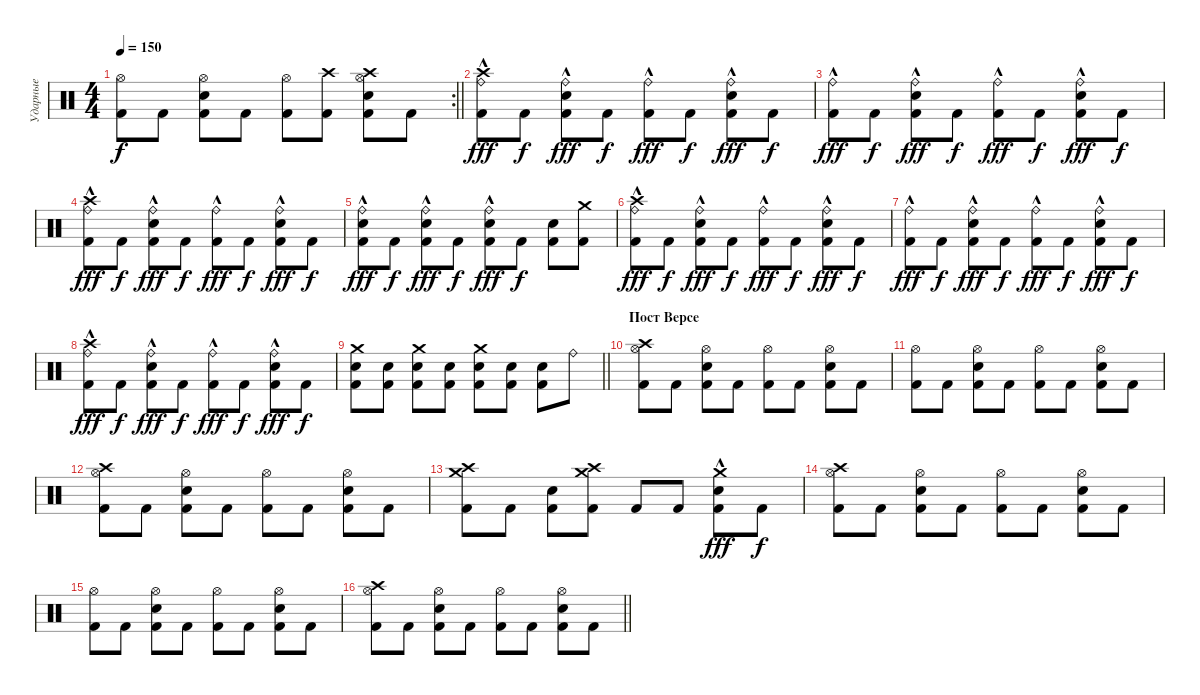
\track ("Ударные" "Ударные") {instrument percussion}
\staff {score}
\articulation defaults
\rc 2
\ts (4 4)
\tempo 150
\clef neutral
\barLineRight lightlight
\ks c
("Hi-Hat (open)" "Kick (hit) 2").8{dy f} "Kick (hit) 2".8 ("Hi-Hat (open)" "Snare (hit) 2" "Kick (hit) 2").8 "Kick (hit) 2".8 ("Hi-Hat (open)" "Kick (hit) 2").8 ("Crash high (hit)" "Kick (hit) 2").8 ("Crash high (hit)" "Hi-Hat (open)" "Snare (hit) 2" "Kick (hit) 2").8 "Kick (hit) 2".8 |
("Crash high (hit)" "Ride (bell)"{hac} "Kick (hit) 2").8{dy fff} "Kick (hit) 2".8{dy f} ("Ride (bell)"{hac} "Snare (hit) 2" "Kick (hit) 2").8{dy fff} "Kick (hit) 2".8{dy f} ("Ride (bell)"{hac} "Kick (hit) 2").8{dy fff} "Kick (hit) 2".8{dy f} ("Ride (bell)"{hac} "Snare (hit) 2" "Kick (hit) 2").8{dy fff} "Kick (hit) 2".8{dy f} |
("Ride (bell)"{hac} "Kick (hit) 2").8{dy fff} "Kick (hit) 2".8{dy f} ("Ride (bell)"{hac} "Snare (hit) 2" "Kick (hit) 2").8{dy fff} "Kick (hit) 2".8{dy f} ("Ride (bell)"{hac} "Kick (hit) 2").8{dy fff} "Kick (hit) 2".8{dy f} ("Ride (bell)"{hac} "Snare (hit) 2" "Kick (hit) 2").8{dy fff} "Kick (hit) 2".8{dy f} |
("Crash high (hit)" "Ride (bell)"{hac} "Kick (hit) 2").8{dy fff} "Kick (hit) 2".8{dy f} ("Ride (bell)"{hac} "Snare (hit) 2" "Kick (hit) 2").8{dy fff} "Kick (hit) 2".8{dy f} ("Ride (bell)"{hac} "Kick (hit) 2").8{dy fff} "Kick (hit) 2".8{dy f} ("Ride (bell)"{hac} "Snare (hit) 2" "Kick (hit) 2").8{dy fff} "Kick (hit) 2".8{dy f} |
("Ride (bell)"{hac} "Snare (hit) 2" "Kick (hit) 2").8{dy fff} "Kick (hit) 2".8{dy f} ("Ride (bell)"{hac} "Snare (hit) 2" "Kick (hit) 2").8{dy fff} "Kick (hit) 2".8{dy f} ("Ride (bell)"{hac} "Snare (hit) 2" "Kick (hit) 2").8{dy fff} "Kick (hit) 2".8{dy f} ("Snare (hit) 2" "Kick (hit) 2").8 ("Crash medium (hit)" "Kick (hit) 2").8 |
("Crash high (hit)" "Ride (bell)"{hac} "Kick (hit) 2").8{dy fff} "Kick (hit) 2".8{dy f} ("Ride (bell)"{hac} "Snare (hit) 2" "Kick (hit) 2").8{dy fff} "Kick (hit) 2".8{dy f} ("Ride (bell)"{hac} "Kick (hit) 2").8{dy fff} "Kick (hit) 2".8{dy f} ("Ride (bell)"{hac} "Snare (hit) 2" "Kick (hit) 2").8{dy fff} "Kick (hit) 2".8{dy f} |
("Ride (bell)"{hac} "Kick (hit) 2").8{dy fff} "Kick (hit) 2".8{dy f} ("Ride (bell)"{hac} "Snare (hit) 2" "Kick (hit) 2").8{dy fff} "Kick (hit) 2".8{dy f} ("Ride (bell)"{hac} "Kick (hit) 2").8{dy fff} "Kick (hit) 2".8{dy f} ("Ride (bell)"{hac} "Snare (hit) 2" "Kick (hit) 2").8{dy fff} "Kick (hit) 2".8{dy f} |
("Crash high (hit)" "Ride (bell)"{hac} "Kick (hit) 2").8{dy fff} "Kick (hit) 2".8{dy f} ("Ride (bell)"{hac} "Snare (hit) 2" "Kick (hit) 2").8{dy fff} "Kick (hit) 2".8{dy f} ("Ride (bell)"{hac} "Kick (hit) 2").8{dy fff} "Kick (hit) 2".8{dy f} ("Ride (bell)"{hac} "Snare (hit) 2" "Kick (hit) 2").8{dy fff} "Kick (hit) 2".8{dy f} |
\barLineRight lightlight
("Crash medium (hit)" "Snare (hit) 2" "Kick (hit) 2").8 ("Snare (hit) 2" "Kick (hit) 2").8 ("Crash medium (hit)" "Snare (hit) 2" "Kick (hit) 2").8 ("Snare (hit) 2" "Kick (hit) 2").8 ("Crash medium (hit)" "Snare (hit) 2" "Kick (hit) 2").8 ("Snare (hit) 2" "Kick (hit) 2").8 ("Snare (hit) 2" "Kick (hit) 2").8 "Ride (bell)".8 |
\section ("" "Пост Версе")
("Crash high (hit)" "Hi-Hat (open)" "Kick (hit) 2").8 "Kick (hit) 2".8 ("Hi-Hat (open)" "Snare (hit) 2" "Kick (hit) 2").8 "Kick (hit) 2".8 ("Hi-Hat (open)" "Kick (hit) 2").8 "Kick (hit) 2".8 ("Hi-Hat (open)" "Snare (hit) 2" "Kick (hit) 2").8 "Kick (hit) 2".8 |
("Hi-Hat (open)" "Kick (hit) 2").8 "Kick (hit) 2".8 ("Hi-Hat (open)" "Snare (hit) 2" "Kick (hit) 2").8 "Kick (hit) 2".8 ("Hi-Hat (open)" "Kick (hit) 2").8 "Kick (hit) 2".8 ("Hi-Hat (open)" "Snare (hit) 2" "Kick (hit) 2").8 "Kick (hit) 2".8 |
("Crash high (hit)" "Hi-Hat (open)" "Kick (hit) 2").8 "Kick (hit) 2".8 ("Hi-Hat (open)" "Snare (hit) 2" "Kick (hit) 2").8 "Kick (hit) 2".8 ("Hi-Hat (open)" "Kick (hit) 2").8 "Kick (hit) 2".8 ("Hi-Hat (open)" "Snare (hit) 2" "Kick (hit) 2").8 "Kick (hit) 2".8 |
("Crash high (hit)" "Crash medium (hit)" "Kick (hit) 2").8 "Kick (hit) 2".8 ("Snare (hit) 2" "Kick (hit) 2").8 ("Crash high (hit)" "Crash medium (hit)" "Kick (hit) 2").8 "Kick (hit) 2".8 "Kick (hit) 2".8 ("Crash medium (hit)"{hac} "Snare (hit) 2" "Kick (hit) 2").8{dy fff} "Kick (hit) 2".8{dy f} |
("Crash high (hit)" "Hi-Hat (open)" "Kick (hit) 2").8 "Kick (hit) 2".8 ("Hi-Hat (open)" "Snare (hit) 2" "Kick (hit) 2").8 "Kick (hit) 2".8 ("Hi-Hat (open)" "Kick (hit) 2").8 "Kick (hit) 2".8 ("Hi-Hat (open)" "Snare (hit) 2" "Kick (hit) 2").8 "Kick (hit) 2".8 |
("Hi-Hat (open)" "Kick (hit) 2").8 "Kick (hit) 2".8 ("Hi-Hat (open)" "Snare (hit) 2" "Kick (hit) 2").8 "Kick (hit) 2".8 ("Hi-Hat (open)" "Kick (hit) 2").8 "Kick (hit) 2".8 ("Hi-Hat (open)" "Snare (hit) 2" "Kick (hit) 2").8 "Kick (hit) 2".8 |
\barLineRight lightlight
("Crash high (hit)" "Hi-Hat (open)" "Kick (hit) 2").8 "Kick (hit) 2".8 ("Hi-Hat (open)" "Snare (hit) 2" "Kick (hit) 2").8 "Kick (hit) 2".8 ("Hi-Hat (open)" "Kick (hit) 2").8 "Kick (hit) 2".8 ("Hi-Hat (open)" "Snare (hit) 2" "Kick (hit) 2").8 "Kick (hit) 2".8
